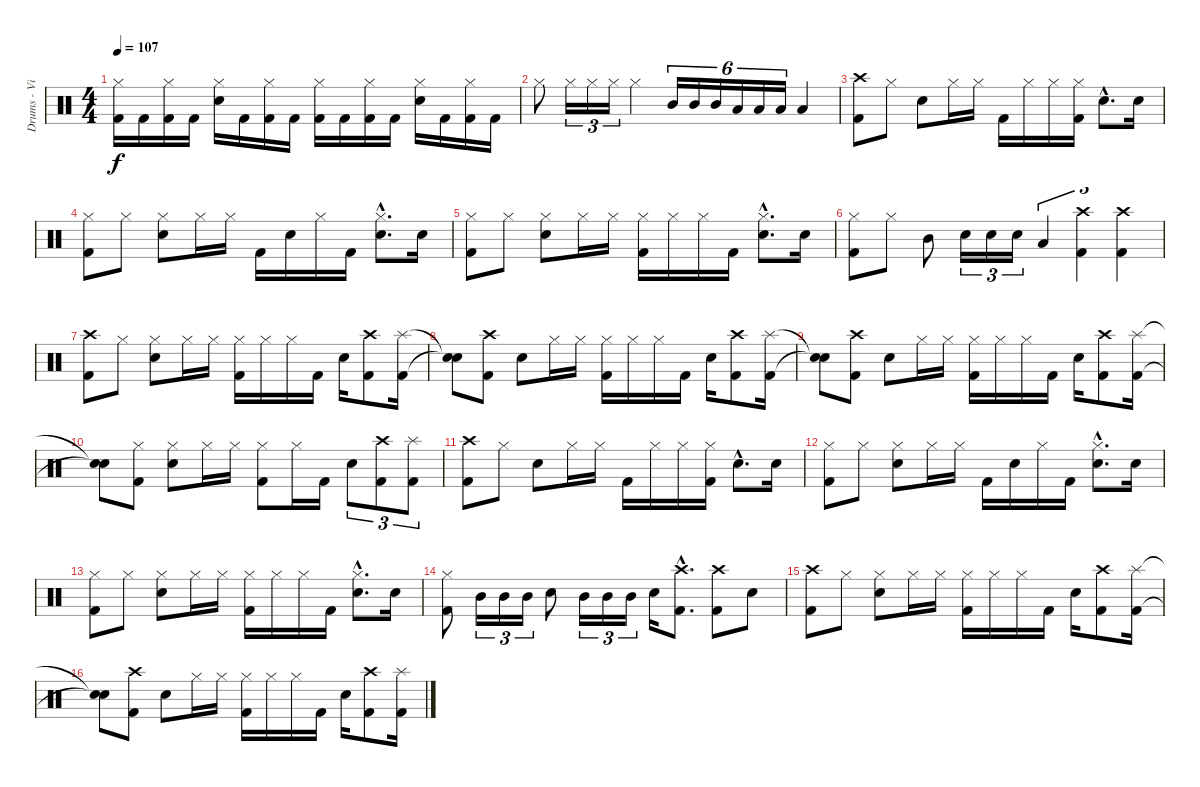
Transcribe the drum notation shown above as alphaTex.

\track ("Drums - Vinnie Paul" "Drums - Vi") {instrument percussion}
\staff {score}
\articulation defaults
\ts (4 4)
\tempo 107
\clef neutral
\ks c
("Hi-Hat (closed)" "Kick (hit) 2").16{dy f} "Kick (hit) 2".16 ("Hi-Hat (closed)" "Kick (hit) 2").16 "Kick (hit) 2".16 ("Hi-Hat (closed)" "Electric Snare (hit)").16 "Kick (hit) 2".16 ("Hi-Hat (closed)" "Kick (hit) 2").16 "Kick (hit) 2".16 ("Hi-Hat (closed)" "Kick (hit) 2").16 "Kick (hit) 2".16 ("Hi-Hat (closed)" "Kick (hit) 2").16 "Kick (hit) 2".16 ("Hi-Hat (closed)" "Electric Snare (hit)").16 "Kick (hit) 2".16 ("Hi-Hat (closed)" "Kick (hit) 2").16 "Kick (hit) 2".16 |
"Hi-Hat (closed)".8 "Hi-Hat (closed)".16{tu (3 2)} "Hi-Hat (closed)".16{tu (3 2)} "Hi-Hat (closed)".16{tu (3 2)} "Hi-Hat (closed)".4 "Mid Tom (hit)".16{tu (6 4)} "Mid Tom (hit)".16{tu (6 4)} "Mid Tom (hit)".16{tu (6 4)} "Low Tom (hit)".16{tu (6 4)} "Low Tom (hit)".16{tu (6 4)} "Low Tom (hit)".16{tu (6 4)} "Low Tom (hit)".4 |
("Crash high (hit)" "Kick (hit) 2").8 "Hi-Hat (closed)".8 "Electric Snare (hit)".8 "Hi-Hat (closed)".16 "Hi-Hat (closed)".16 "Kick (hit) 2".16 "Hi-Hat (closed)".16 "Hi-Hat (closed)".16 ("Hi-Hat (closed)" "Kick (hit) 2").16 "Electric Snare (hit)"{hac}.8{d} "Electric Snare (hit)".16 |
("Hi-Hat (closed)" "Kick (hit) 2").8 "Hi-Hat (closed)".8 ("Hi-Hat (closed)" "Electric Snare (hit)").8 "Hi-Hat (closed)".16 "Hi-Hat (closed)".16 "Kick (hit) 2".16 "Electric Snare (hit)".16 "Hi-Hat (closed)".16 "Kick (hit) 2".16 ("Hi-Hat (closed)"{hac} "Electric Snare (hit)"{hac}).8{d} "Electric Snare (hit)".16 |
("Hi-Hat (closed)" "Kick (hit) 2").8 "Hi-Hat (closed)".8 ("Hi-Hat (closed)" "Electric Snare (hit)").8 "Hi-Hat (closed)".16 "Hi-Hat (closed)".16 ("Hi-Hat (closed)" "Kick (hit) 2").16 "Hi-Hat (closed)".16 "Hi-Hat (closed)".16 "Kick (hit) 2".16 ("Hi-Hat (closed)"{hac} "Electric Snare (hit)"{hac}).8{d} "Electric Snare (hit)".16 |
("Hi-Hat (closed)" "Kick (hit) 2").8 "Hi-Hat (closed)".8 "Mid Tom (hit)".8 "Electric Snare (hit)".16{tu (3 2)} "Electric Snare (hit)".16{tu (3 2)} "Electric Snare (hit)".16{tu (3 2)} "Low Tom (hit)".4{tu (3 2)} ("Crash high (hit)" "Kick (hit) 2").4{tu (3 2)} ("Crash high (hit)" "Kick (hit) 2").4{tu (3 2)} |
("Crash high (hit)" "Kick (hit) 2").8 "Hi-Hat (closed)".8 ("Hi-Hat (closed)" "Electric Snare (hit)").8 "Hi-Hat (closed)".16 "Hi-Hat (closed)".16 ("Hi-Hat (closed)" "Kick (hit) 2").16 "Hi-Hat (closed)".16 "Hi-Hat (closed)".16 "Kick (hit) 2".16 "Electric Snare (hit)".16 ("Crash high (hit)" "Kick (hit) 2").8 ("Splash (hit)" "Kick (hit) 2").16 |
("Snare (hit)"{t} "Snare (hit)"{t}).8 ("Crash high (hit)" "Kick (hit) 2").8 "Electric Snare (hit)".8 "Hi-Hat (closed)".16 "Hi-Hat (closed)".16 ("Hi-Hat (closed)" "Kick (hit) 2").16 "Hi-Hat (closed)".16 "Hi-Hat (closed)".16 "Kick (hit) 2".16 "Electric Snare (hit)".16 ("Crash high (hit)" "Kick (hit) 2").8 ("Splash (hit)" "Kick (hit) 2").16 |
("Snare (hit)"{t} "Snare (hit)"{t}).8 ("Crash high (hit)" "Kick (hit) 2").8 "Electric Snare (hit)".8 "Hi-Hat (closed)".16 "Hi-Hat (closed)".16 ("Hi-Hat (closed)" "Kick (hit) 2").16 "Hi-Hat (closed)".16 "Hi-Hat (closed)".16 "Kick (hit) 2".16 "Electric Snare (hit)".16 ("Crash high (hit)" "Kick (hit) 2").8 ("Splash (hit)" "Kick (hit) 2").16 |
("Snare (hit)"{t} "Snare (hit)"{t}).8 ("Hi-Hat (closed)" "Kick (hit) 2").8 ("Hi-Hat (closed)" "Electric Snare (hit)").8 "Hi-Hat (closed)".16 "Hi-Hat (closed)".16 ("Hi-Hat (closed)" "Kick (hit) 2").8 "Hi-Hat (closed)".16 "Kick (hit) 2".16 "Electric Snare (hit)".8{tu (3 2)} ("Crash high (hit)" "Kick (hit) 2").8{tu (3 2)} ("Splash (hit)" "Kick (hit) 2").8{tu (3 2)} |
("Crash high (hit)" "Kick (hit) 2").8 "Hi-Hat (closed)".8 "Electric Snare (hit)".8 "Hi-Hat (closed)".16 "Hi-Hat (closed)".16 "Kick (hit) 2".16 "Hi-Hat (closed)".16 "Hi-Hat (closed)".16 ("Hi-Hat (closed)" "Kick (hit) 2").16 "Electric Snare (hit)"{hac}.8{d} "Electric Snare (hit)".16 |
("Hi-Hat (closed)" "Kick (hit) 2").8 "Hi-Hat (closed)".8 ("Hi-Hat (closed)" "Electric Snare (hit)").8 "Hi-Hat (closed)".16 "Hi-Hat (closed)".16 "Kick (hit) 2".16 "Electric Snare (hit)".16 "Hi-Hat (closed)".16 "Kick (hit) 2".16 ("Hi-Hat (closed)"{hac} "Electric Snare (hit)"{hac}).8{d} "Electric Snare (hit)".16 |
("Hi-Hat (closed)" "Kick (hit) 2").8 "Hi-Hat (closed)".8 ("Hi-Hat (closed)" "Electric Snare (hit)").8 "Hi-Hat (closed)".16 "Hi-Hat (closed)".16 ("Hi-Hat (closed)" "Kick (hit) 2").16 "Hi-Hat (closed)".16 "Hi-Hat (closed)".16 "Kick (hit) 2".16 ("Hi-Hat (closed)"{hac} "Electric Snare (hit)"{hac}).8{d} "Electric Snare (hit)".16 |
("Hi-Hat (closed)" "Kick (hit) 2").8 "Mid Tom (hit)".16{tu (3 2)} "Mid Tom (hit)".16{tu (3 2)} "Mid Tom (hit)".16{tu (3 2)} "Electric Snare (hit)".8 "Mid Tom (hit)".16{tu (3 2)} "Mid Tom (hit)".16{tu (3 2)} "Mid Tom (hit)".16{tu (3 2)} "Electric Snare (hit)".16 ("Crash high (hit)"{hac} "Kick (hit) 2"{hac}).8{d} ("Crash high (hit)" "Kick (hit) 2").8 "Electric Snare (hit)".8 |
("Crash high (hit)" "Kick (hit) 2").8 "Hi-Hat (closed)".8 ("Hi-Hat (closed)" "Electric Snare (hit)").8 "Hi-Hat (closed)".16 "Hi-Hat (closed)".16 ("Hi-Hat (closed)" "Kick (hit) 2").16 "Hi-Hat (closed)".16 "Hi-Hat (closed)".16 "Kick (hit) 2".16 "Electric Snare (hit)".16 ("Crash high (hit)" "Kick (hit) 2").8 ("Splash (hit)" "Kick (hit) 2").16 |
("Snare (hit)"{t} "Snare (hit)"{t}).8 ("Crash high (hit)" "Kick (hit) 2").8 "Electric Snare (hit)".8 "Hi-Hat (closed)".16 "Hi-Hat (closed)".16 ("Hi-Hat (closed)" "Kick (hit) 2").16 "Hi-Hat (closed)".16 "Hi-Hat (closed)".16 "Kick (hit) 2".16 "Electric Snare (hit)".16 ("Crash high (hit)" "Kick (hit) 2").8 ("Splash (hit)" "Kick (hit) 2").16
